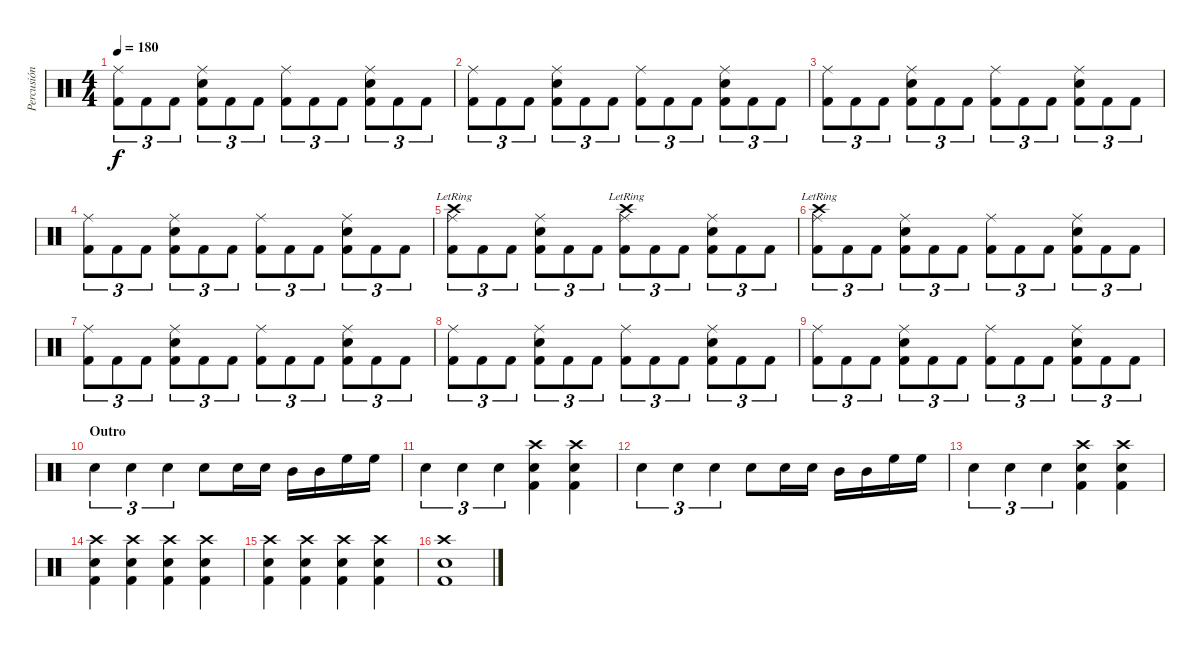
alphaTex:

\track ("Percusión" "Percusión") {instrument percussion}
\staff {score}
\articulation defaults
\ts (4 4)
\tempo 180
\clef neutral
\ks c
("Ride (middle)" "Kick (hit) 2").8{tu (3 2) dy f} "Kick (hit) 2".8{tu (3 2)} "Kick (hit) 2".8{tu (3 2)} ("Ride (middle)" "Snare (hit) 2" "Kick (hit) 2").8{tu (3 2)} "Kick (hit) 2".8{tu (3 2)} "Kick (hit) 2".8{tu (3 2)} ("Ride (middle)" "Kick (hit) 2").8{tu (3 2)} "Kick (hit) 2".8{tu (3 2)} "Kick (hit) 2".8{tu (3 2)} ("Ride (middle)" "Snare (hit) 2" "Kick (hit) 2").8{tu (3 2)} "Kick (hit) 2".8{tu (3 2)} "Kick (hit) 2".8{tu (3 2)} |
("Ride (middle)" "Kick (hit) 2").8{tu (3 2)} "Kick (hit) 2".8{tu (3 2)} "Kick (hit) 2".8{tu (3 2)} ("Ride (middle)" "Snare (hit) 2" "Kick (hit) 2").8{tu (3 2)} "Kick (hit) 2".8{tu (3 2)} "Kick (hit) 2".8{tu (3 2)} ("Ride (middle)" "Kick (hit) 2").8{tu (3 2)} "Kick (hit) 2".8{tu (3 2)} "Kick (hit) 2".8{tu (3 2)} ("Ride (middle)" "Snare (hit) 2" "Kick (hit) 2").8{tu (3 2)} "Kick (hit) 2".8{tu (3 2)} "Kick (hit) 2".8{tu (3 2)} |
("Ride (middle)" "Kick (hit) 2").8{tu (3 2)} "Kick (hit) 2".8{tu (3 2)} "Kick (hit) 2".8{tu (3 2)} ("Ride (middle)" "Snare (hit) 2" "Kick (hit) 2").8{tu (3 2)} "Kick (hit) 2".8{tu (3 2)} "Kick (hit) 2".8{tu (3 2)} ("Ride (middle)" "Kick (hit) 2").8{tu (3 2)} "Kick (hit) 2".8{tu (3 2)} "Kick (hit) 2".8{tu (3 2)} ("Ride (middle)" "Snare (hit) 2" "Kick (hit) 2").8{tu (3 2)} "Kick (hit) 2".8{tu (3 2)} "Kick (hit) 2".8{tu (3 2)} |
("Ride (middle)" "Kick (hit) 2").8{tu (3 2)} "Kick (hit) 2".8{tu (3 2)} "Kick (hit) 2".8{tu (3 2)} ("Ride (middle)" "Snare (hit) 2" "Kick (hit) 2").8{tu (3 2)} "Kick (hit) 2".8{tu (3 2)} "Kick (hit) 2".8{tu (3 2)} ("Ride (middle)" "Kick (hit) 2").8{tu (3 2)} "Kick (hit) 2".8{tu (3 2)} "Kick (hit) 2".8{tu (3 2)} ("Ride (middle)" "Snare (hit) 2" "Kick (hit) 2").8{tu (3 2)} "Kick (hit) 2".8{tu (3 2)} "Kick (hit) 2".8{tu (3 2)} |
("Crash high (hit)"{lr} "Ride (middle)" "Kick (hit) 2").8{tu (3 2)} "Kick (hit) 2".8{tu (3 2)} "Kick (hit) 2".8{tu (3 2)} ("Ride (middle)" "Snare (hit) 2" "Kick (hit) 2").8{tu (3 2)} "Kick (hit) 2".8{tu (3 2)} "Kick (hit) 2".8{tu (3 2)} ("Crash high (hit)"{lr} "Ride (middle)" "Kick (hit) 2").8{tu (3 2)} "Kick (hit) 2".8{tu (3 2)} "Kick (hit) 2".8{tu (3 2)} ("Ride (middle)" "Snare (hit) 2" "Kick (hit) 2").8{tu (3 2)} "Kick (hit) 2".8{tu (3 2)} "Kick (hit) 2".8{tu (3 2)} |
("Crash high (hit)"{lr} "Ride (middle)" "Kick (hit) 2").8{tu (3 2)} "Kick (hit) 2".8{tu (3 2)} "Kick (hit) 2".8{tu (3 2)} ("Ride (middle)" "Snare (hit) 2" "Kick (hit) 2").8{tu (3 2)} "Kick (hit) 2".8{tu (3 2)} "Kick (hit) 2".8{tu (3 2)} ("Ride (middle)" "Kick (hit) 2").8{tu (3 2)} "Kick (hit) 2".8{tu (3 2)} "Kick (hit) 2".8{tu (3 2)} ("Ride (middle)" "Snare (hit) 2" "Kick (hit) 2").8{tu (3 2)} "Kick (hit) 2".8{tu (3 2)} "Kick (hit) 2".8{tu (3 2)} |
("Ride (middle)" "Kick (hit) 2").8{tu (3 2)} "Kick (hit) 2".8{tu (3 2)} "Kick (hit) 2".8{tu (3 2)} ("Ride (middle)" "Snare (hit) 2" "Kick (hit) 2").8{tu (3 2)} "Kick (hit) 2".8{tu (3 2)} "Kick (hit) 2".8{tu (3 2)} ("Ride (middle)" "Kick (hit) 2").8{tu (3 2)} "Kick (hit) 2".8{tu (3 2)} "Kick (hit) 2".8{tu (3 2)} ("Ride (middle)" "Snare (hit) 2" "Kick (hit) 2").8{tu (3 2)} "Kick (hit) 2".8{tu (3 2)} "Kick (hit) 2".8{tu (3 2)} |
("Ride (middle)" "Kick (hit) 2").8{tu (3 2)} "Kick (hit) 2".8{tu (3 2)} "Kick (hit) 2".8{tu (3 2)} ("Ride (middle)" "Snare (hit) 2" "Kick (hit) 2").8{tu (3 2)} "Kick (hit) 2".8{tu (3 2)} "Kick (hit) 2".8{tu (3 2)} ("Ride (middle)" "Kick (hit) 2").8{tu (3 2)} "Kick (hit) 2".8{tu (3 2)} "Kick (hit) 2".8{tu (3 2)} ("Ride (middle)" "Snare (hit) 2" "Kick (hit) 2").8{tu (3 2)} "Kick (hit) 2".8{tu (3 2)} "Kick (hit) 2".8{tu (3 2)} |
("Ride (middle)" "Kick (hit) 2").8{tu (3 2)} "Kick (hit) 2".8{tu (3 2)} "Kick (hit) 2".8{tu (3 2)} ("Ride (middle)" "Snare (hit) 2" "Kick (hit) 2").8{tu (3 2)} "Kick (hit) 2".8{tu (3 2)} "Kick (hit) 2".8{tu (3 2)} ("Ride (middle)" "Kick (hit) 2").8{tu (3 2)} "Kick (hit) 2".8{tu (3 2)} "Kick (hit) 2".8{tu (3 2)} ("Ride (middle)" "Snare (hit) 2" "Kick (hit) 2").8{tu (3 2)} "Kick (hit) 2".8{tu (3 2)} "Kick (hit) 2".8{tu (3 2)} |
\section ("" "Outro")
"Snare (hit) 2".4{tu (3 2)} "Snare (hit) 2".4{tu (3 2)} "Snare (hit) 2".4{tu (3 2)} "Snare (hit) 2".8 "Snare (hit) 2".16 "Snare (hit) 2".16 "Mid Tom (hit)".16 "Mid Tom (hit)".16 "High Floor Tom (hit)".16 "High Floor Tom (hit)".16 |
"Snare (hit) 2".4{tu (3 2)} "Snare (hit) 2".4{tu (3 2)} "Snare (hit) 2".4{tu (3 2)} ("Snare (hit) 2" "Crash high (hit)" "Kick (hit) 2").4 ("Snare (hit) 2" "Crash high (hit)" "Kick (hit) 2").4 |
"Snare (hit) 2".4{tu (3 2)} "Snare (hit) 2".4{tu (3 2)} "Snare (hit) 2".4{tu (3 2)} "Snare (hit) 2".8 "Snare (hit) 2".16 "Snare (hit) 2".16 "Mid Tom (hit)".16 "Mid Tom (hit)".16 "High Floor Tom (hit)".16 "High Floor Tom (hit)".16 |
"Snare (hit) 2".4{tu (3 2)} "Snare (hit) 2".4{tu (3 2)} "Snare (hit) 2".4{tu (3 2)} ("Snare (hit) 2" "Crash high (hit)" "Kick (hit) 2").4 ("Snare (hit) 2" "Crash high (hit)" "Kick (hit) 2").4 |
("Snare (hit) 2" "Crash high (hit)" "Kick (hit) 2").4 ("Snare (hit) 2" "Crash high (hit)" "Kick (hit) 2").4 ("Snare (hit) 2" "Crash high (hit)" "Kick (hit) 2").4 ("Snare (hit) 2" "Crash high (hit)" "Kick (hit) 2").4 |
("Snare (hit) 2" "Crash high (hit)" "Kick (hit) 2").4 ("Snare (hit) 2" "Crash high (hit)" "Kick (hit) 2").4 ("Snare (hit) 2" "Crash high (hit)" "Kick (hit) 2").4 ("Snare (hit) 2" "Crash high (hit)" "Kick (hit) 2").4 |
("Snare (hit) 2" "Crash high (hit)" "Kick (hit) 2").1
